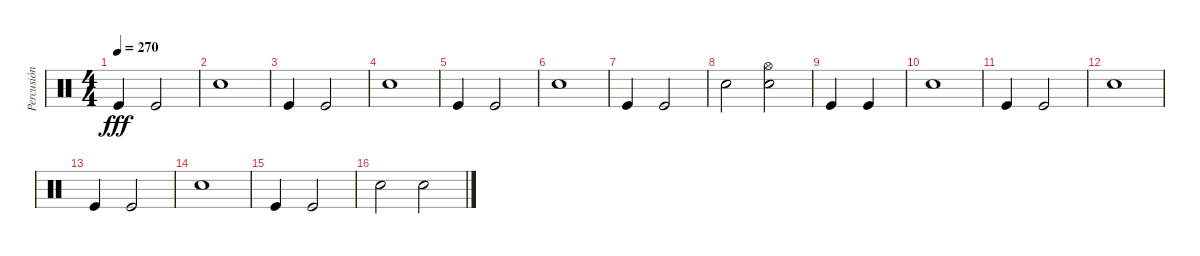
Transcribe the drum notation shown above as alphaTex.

\track ("Percusión" "Percusión") {instrument percussion}
\staff {score}
\articulation defaults
\ts (4 4)
\tempo 270
\clef neutral
\ks c "Kick (hit)".4{dy fff} "Kick (hit)".2
|
"Snare (hit) 2".1 |
"Kick (hit)".4 "Kick (hit)".2 |
"Snare (hit) 2".1 |
"Kick (hit)".4 "Kick (hit)".2 |
"Snare (hit) 2".1 |
"Kick (hit)".4 "Kick (hit)".2 |
"Snare (hit) 2".2 ("Hi-Hat (open)" "Snare (hit) 2").2 |
"Kick (hit)".4 "Kick (hit)".4 |
"Snare (hit) 2".1 |
"Kick (hit)".4 "Kick (hit)".2 |
"Snare (hit) 2".1 |
"Kick (hit)".4 "Kick (hit)".2 |
"Snare (hit) 2".1 |
"Kick (hit)".4 "Kick (hit)".2 |
"Snare (hit) 2".2 "Snare (hit) 2".2
